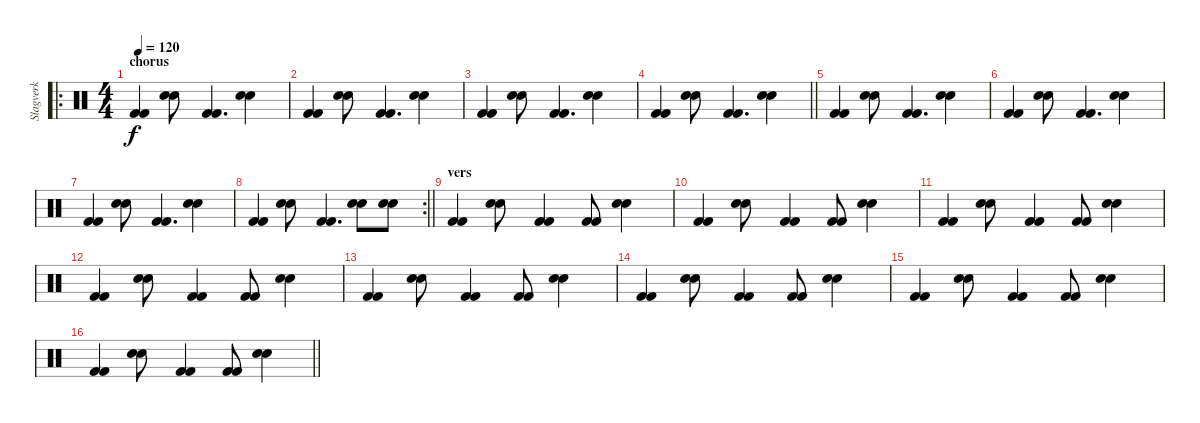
\track ("Slagverk" "Slagverk") {instrument percussion}
\staff {score}
\articulation defaults
\ro
\ts (4 4)
\section ("" "chorus")
\tempo 120
\clef neutral
\ks c
("Kick (hit) 2" "Kick (hit) 2").4{dy f} ("Snare (hit) 2" "Snare (hit) 2").8 ("Kick (hit) 2" "Kick (hit) 2").4{d} ("Snare (hit) 2" "Snare (hit) 2").4 |
("Kick (hit) 2" "Kick (hit) 2").4 ("Snare (hit) 2" "Snare (hit) 2").8 ("Kick (hit) 2" "Kick (hit) 2").4{d} ("Snare (hit) 2" "Snare (hit) 2").4 |
("Kick (hit) 2" "Kick (hit) 2").4 ("Snare (hit) 2" "Snare (hit) 2").8 ("Kick (hit) 2" "Kick (hit) 2").4{d} ("Snare (hit) 2" "Snare (hit) 2").4 |
\barLineRight lightlight
("Kick (hit) 2" "Kick (hit) 2").4 ("Snare (hit) 2" "Snare (hit) 2").8 ("Kick (hit) 2" "Kick (hit) 2").4{d} ("Snare (hit) 2" "Snare (hit) 2").4 |
("Kick (hit) 2" "Kick (hit) 2").4 ("Snare (hit) 2" "Snare (hit) 2").8 ("Kick (hit) 2" "Kick (hit) 2").4{d} ("Snare (hit) 2" "Snare (hit) 2").4 |
("Kick (hit) 2" "Kick (hit) 2").4 ("Snare (hit) 2" "Snare (hit) 2").8 ("Kick (hit) 2" "Kick (hit) 2").4{d} ("Snare (hit) 2" "Snare (hit) 2").4 |
("Kick (hit) 2" "Kick (hit) 2").4 ("Snare (hit) 2" "Snare (hit) 2").8 ("Kick (hit) 2" "Kick (hit) 2").4{d} ("Snare (hit) 2" "Snare (hit) 2").4 |
\rc 2
\barLineRight lightlight
("Kick (hit) 2" "Kick (hit) 2").4 ("Snare (hit) 2" "Snare (hit) 2").8 ("Kick (hit) 2" "Kick (hit) 2").4{d} ("Snare (hit) 2" "Snare (hit) 2").8 ("Snare (hit) 2" "Snare (hit) 2").8 |
\section ("" "vers")
("Kick (hit) 2" "Kick (hit) 2").4 ("Snare (hit) 2" "Snare (hit) 2").8 ("Kick (hit) 2" "Kick (hit) 2").4 ("Kick (hit) 2" "Kick (hit) 2").8 ("Snare (hit) 2" "Snare (hit) 2").4 |
("Kick (hit) 2" "Kick (hit) 2").4 ("Snare (hit) 2" "Snare (hit) 2").8 ("Kick (hit) 2" "Kick (hit) 2").4 ("Kick (hit) 2" "Kick (hit) 2").8 ("Snare (hit) 2" "Snare (hit) 2").4 |
("Kick (hit) 2" "Kick (hit) 2").4 ("Snare (hit) 2" "Snare (hit) 2").8 ("Kick (hit) 2" "Kick (hit) 2").4 ("Kick (hit) 2" "Kick (hit) 2").8 ("Snare (hit) 2" "Snare (hit) 2").4 |
("Kick (hit) 2" "Kick (hit) 2").4 ("Snare (hit) 2" "Snare (hit) 2").8 ("Kick (hit) 2" "Kick (hit) 2").4 ("Kick (hit) 2" "Kick (hit) 2").8 ("Snare (hit) 2" "Snare (hit) 2").4 |
("Kick (hit) 2" "Kick (hit) 2").4 ("Snare (hit) 2" "Snare (hit) 2").8 ("Kick (hit) 2" "Kick (hit) 2").4 ("Kick (hit) 2" "Kick (hit) 2").8 ("Snare (hit) 2" "Snare (hit) 2").4 |
("Kick (hit) 2" "Kick (hit) 2").4 ("Snare (hit) 2" "Snare (hit) 2").8 ("Kick (hit) 2" "Kick (hit) 2").4 ("Kick (hit) 2" "Kick (hit) 2").8 ("Snare (hit) 2" "Snare (hit) 2").4 |
("Kick (hit) 2" "Kick (hit) 2").4 ("Snare (hit) 2" "Snare (hit) 2").8 ("Kick (hit) 2" "Kick (hit) 2").4 ("Kick (hit) 2" "Kick (hit) 2").8 ("Snare (hit) 2" "Snare (hit) 2").4 |
\barLineRight lightlight
("Kick (hit) 2" "Kick (hit) 2").4 ("Snare (hit) 2" "Snare (hit) 2").8 ("Kick (hit) 2" "Kick (hit) 2").4 ("Kick (hit) 2" "Kick (hit) 2").8 ("Snare (hit) 2" "Snare (hit) 2").4
